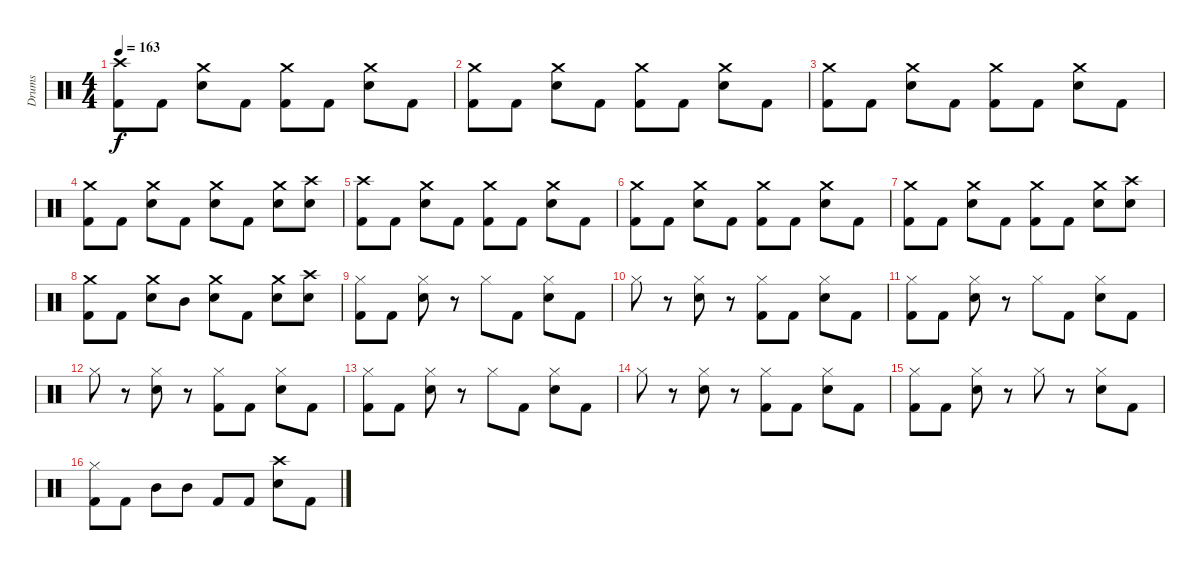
\track ("Drums" "Drums") {instrument percussion}
\staff {score}
\articulation defaults
\ts (4 4)
\tempo 163
\clef neutral
\ks c
("Crash high (hit)" "Kick (hit) 2").8{dy f} "Kick (hit) 2".8 ("Crash medium (hit)" "Electric Snare (hit)").8 "Kick (hit) 2".8 ("Crash medium (hit)" "Kick (hit) 2").8 "Kick (hit) 2".8 ("Crash medium (hit)" "Electric Snare (hit)").8 "Kick (hit) 2".8 |
("Crash medium (hit)" "Kick (hit) 2").8 "Kick (hit) 2".8 ("Crash medium (hit)" "Electric Snare (hit)").8 "Kick (hit) 2".8 ("Crash medium (hit)" "Kick (hit) 2").8 "Kick (hit) 2".8 ("Crash medium (hit)" "Electric Snare (hit)").8 "Kick (hit) 2".8 |
("Crash medium (hit)" "Kick (hit) 2").8 "Kick (hit) 2".8 ("Crash medium (hit)" "Electric Snare (hit)").8 "Kick (hit) 2".8 ("Crash medium (hit)" "Kick (hit) 2").8 "Kick (hit) 2".8 ("Crash medium (hit)" "Electric Snare (hit)").8 "Kick (hit) 2".8 |
("Crash medium (hit)" "Kick (hit) 2").8 "Kick (hit) 2".8 ("Crash medium (hit)" "Electric Snare (hit)").8 "Kick (hit) 2".8 ("Crash medium (hit)" "Electric Snare (hit)").8 "Kick (hit) 2".8 ("Crash medium (hit)" "Electric Snare (hit)").8 ("Crash high (hit)" "Electric Snare (hit)").8 |
("Crash high (hit)" "Kick (hit) 2").8 "Kick (hit) 2".8 ("Crash medium (hit)" "Electric Snare (hit)").8 "Kick (hit) 2".8 ("Crash medium (hit)" "Kick (hit) 2").8 "Kick (hit) 2".8 ("Crash medium (hit)" "Electric Snare (hit)").8 "Kick (hit) 2".8 |
("Crash medium (hit)" "Kick (hit) 2").8 "Kick (hit) 2".8 ("Crash medium (hit)" "Electric Snare (hit)").8 "Kick (hit) 2".8 ("Crash medium (hit)" "Kick (hit) 2").8 "Kick (hit) 2".8 ("Crash medium (hit)" "Electric Snare (hit)").8 "Kick (hit) 2".8 |
("Crash medium (hit)" "Kick (hit) 2").8 "Kick (hit) 2".8 ("Crash medium (hit)" "Electric Snare (hit)").8 "Kick (hit) 2".8 ("Crash medium (hit)" "Kick (hit) 2").8 "Kick (hit) 2".8 ("Crash medium (hit)" "Electric Snare (hit)").8 ("Crash high (hit)" "Electric Snare (hit)").8 |
("Crash medium (hit)" "Kick (hit) 2").8 "Kick (hit) 2".8 ("Crash medium (hit)" "Electric Snare (hit)").8 "Mid Tom (hit)".8 ("Crash medium (hit)" "Electric Snare (hit)").8 "Kick (hit) 2".8 ("Crash medium (hit)" "Electric Snare (hit)").8 ("Crash high (hit)" "Electric Snare (hit)").8 |
("Hi-Hat (closed)" "Kick (hit) 2").8 "Kick (hit) 2".8 ("Hi-Hat (closed)" "Electric Snare (hit)").8 r.8 "Hi-Hat (closed)".8 "Kick (hit) 2".8 ("Hi-Hat (closed)" "Electric Snare (hit)").8 "Kick (hit) 2".8 |
"Hi-Hat (closed)".8 r.8 ("Hi-Hat (closed)" "Electric Snare (hit)").8 r.8 ("Hi-Hat (closed)" "Kick (hit) 2").8 "Kick (hit) 2".8 ("Hi-Hat (closed)" "Electric Snare (hit)").8 "Kick (hit) 2".8 |
("Hi-Hat (closed)" "Kick (hit) 2").8 "Kick (hit) 2".8 ("Hi-Hat (closed)" "Electric Snare (hit)").8 r.8 "Hi-Hat (closed)".8 "Kick (hit) 2".8 ("Hi-Hat (closed)" "Electric Snare (hit)").8 "Kick (hit) 2".8 |
"Hi-Hat (closed)".8 r.8 ("Hi-Hat (closed)" "Electric Snare (hit)").8 r.8 ("Hi-Hat (closed)" "Kick (hit) 2").8 "Kick (hit) 2".8 ("Hi-Hat (closed)" "Electric Snare (hit)").8 "Kick (hit) 2".8 |
("Hi-Hat (closed)" "Kick (hit) 2").8 "Kick (hit) 2".8 ("Hi-Hat (closed)" "Electric Snare (hit)").8 r.8 "Hi-Hat (closed)".8 "Kick (hit) 2".8 ("Hi-Hat (closed)" "Electric Snare (hit)").8 "Kick (hit) 2".8 |
"Hi-Hat (closed)".8 r.8 ("Hi-Hat (closed)" "Electric Snare (hit)").8 r.8 ("Hi-Hat (closed)" "Kick (hit) 2").8 "Kick (hit) 2".8 ("Hi-Hat (closed)" "Electric Snare (hit)").8 "Kick (hit) 2".8 |
("Hi-Hat (closed)" "Kick (hit) 2").8 "Kick (hit) 2".8 ("Hi-Hat (closed)" "Electric Snare (hit)").8 r.8 "Hi-Hat (closed)".8 r.8 ("Hi-Hat (closed)" "Electric Snare (hit)").8 "Kick (hit) 2".8 |
("Hi-Hat (closed)" "Kick (hit) 2").8 "Kick (hit) 2".8 "Mid Tom (hit)".8 "Mid Tom (hit)".8 "Kick (hit) 2".8 "Kick (hit) 2".8 ("Crash high (hit)" "Electric Snare (hit)").8 "Kick (hit) 2".8
